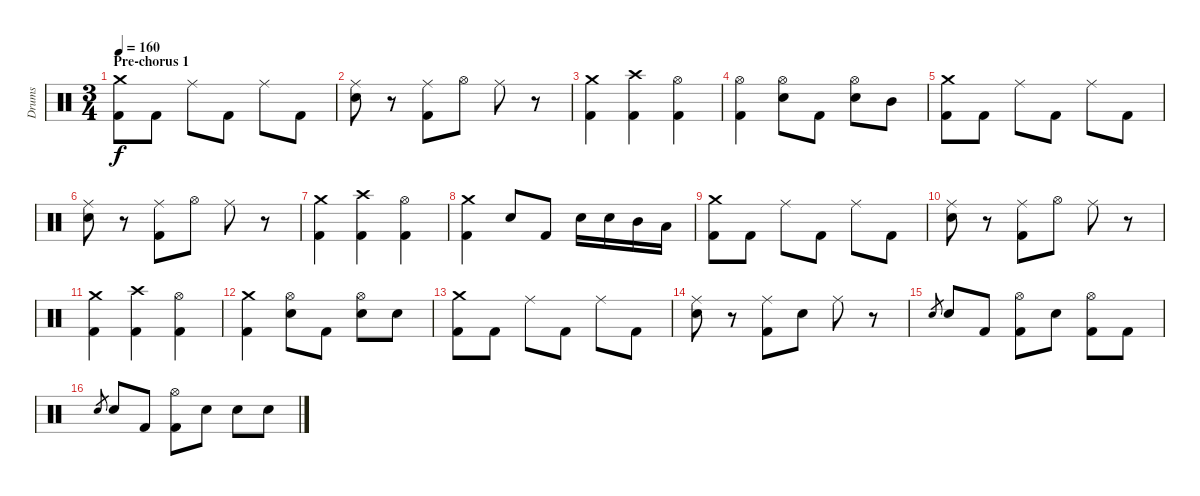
\track ("Drums" "Drums") {instrument percussion}
\staff {score}
\articulation defaults
\ts (3 4)
\section ("" "Pre-chorus 1")
\tempo 160
\clef neutral
\ks c
("Crash medium (hit)" "Kick (hit) 2").8{dy f} "Kick (hit) 2".8 "Ride (middle)".8 "Kick (hit) 2".8 "Ride (middle)".8 "Kick (hit) 2".8 |
("Ride (middle)" "Snare (hit) 2").8 r.8 ("Ride (middle)" "Kick (hit) 2").8 "Hi-Hat (open)".8 "Ride (middle)".8 r.8 |
("Crash medium (hit)" "Kick (hit) 2").4 ("Crash high (hit)" "Kick (hit) 2").4 ("Hi-Hat (open)" "Kick (hit) 2").4 |
("Hi-Hat (open)" "Kick (hit) 2").4 ("Hi-Hat (open)" "Snare (hit) 2").8 "Kick (hit) 2".8 ("Hi-Hat (open)" "Snare (hit) 2").8 "Mid Tom (hit)".8 |
("Crash medium (hit)" "Kick (hit) 2").8 "Kick (hit) 2".8 "Ride (middle)".8 "Kick (hit) 2".8 "Ride (middle)".8 "Kick (hit) 2".8 |
("Ride (middle)" "Snare (hit) 2").8 r.8 ("Ride (middle)" "Kick (hit) 2").8 "Hi-Hat (open)".8 "Ride (middle)".8 r.8 |
("Crash medium (hit)" "Kick (hit) 2").4 ("Crash high (hit)" "Kick (hit) 2").4 ("Hi-Hat (open)" "Kick (hit) 2").4 |
("Crash medium (hit)" "Kick (hit) 2").4 "Snare (hit) 2".8 "Kick (hit) 2".8 "Snare (hit) 2".16 "Snare (hit) 2".16 "Mid Tom (hit)".16 "Low Tom (hit)".16 |
("Crash medium (hit)" "Kick (hit) 2").8 "Kick (hit) 2".8 "Ride (middle)".8 "Kick (hit) 2".8 "Ride (middle)".8 "Kick (hit) 2".8 |
("Ride (middle)" "Snare (hit) 2").8 r.8 ("Ride (middle)" "Kick (hit) 2").8 "Hi-Hat (open)".8 "Ride (middle)".8 r.8 |
("Crash medium (hit)" "Kick (hit) 2").4 ("Crash high (hit)" "Kick (hit) 2").4 ("Hi-Hat (open)" "Kick (hit) 2").4 |
("Crash medium (hit)" "Kick (hit) 2").4 ("Hi-Hat (open)" "Snare (hit) 2").8 "Kick (hit) 2".8 ("Hi-Hat (open)" "Snare (hit) 2").8 "Snare (hit) 2".8 |
("Crash medium (hit)" "Kick (hit) 2").8 "Kick (hit) 2".8 "Ride (middle)".8 "Kick (hit) 2".8 "Ride (middle)".8 "Kick (hit) 2".8 |
("Ride (middle)" "Snare (hit) 2").8 r.8 ("Ride (middle)" "Kick (hit) 2").8 "Snare (hit) 2".8 "Ride (middle)".8 r.8 |
"Snare (hit) 2".8{gr} "Snare (hit) 2".8 "Kick (hit) 2".8 ("Hi-Hat (open)" "Kick (hit) 2").8 "Snare (hit) 2".8 ("Hi-Hat (open)" "Kick (hit) 2").8 "Kick (hit) 2".8 |
"Snare (hit) 2".8{gr} "Snare (hit) 2".8 "Kick (hit) 2".8 ("Hi-Hat (open)" "Kick (hit) 2").8 "Snare (hit) 2".8 "Snare (hit) 2".8 "Snare (hit) 2".8
